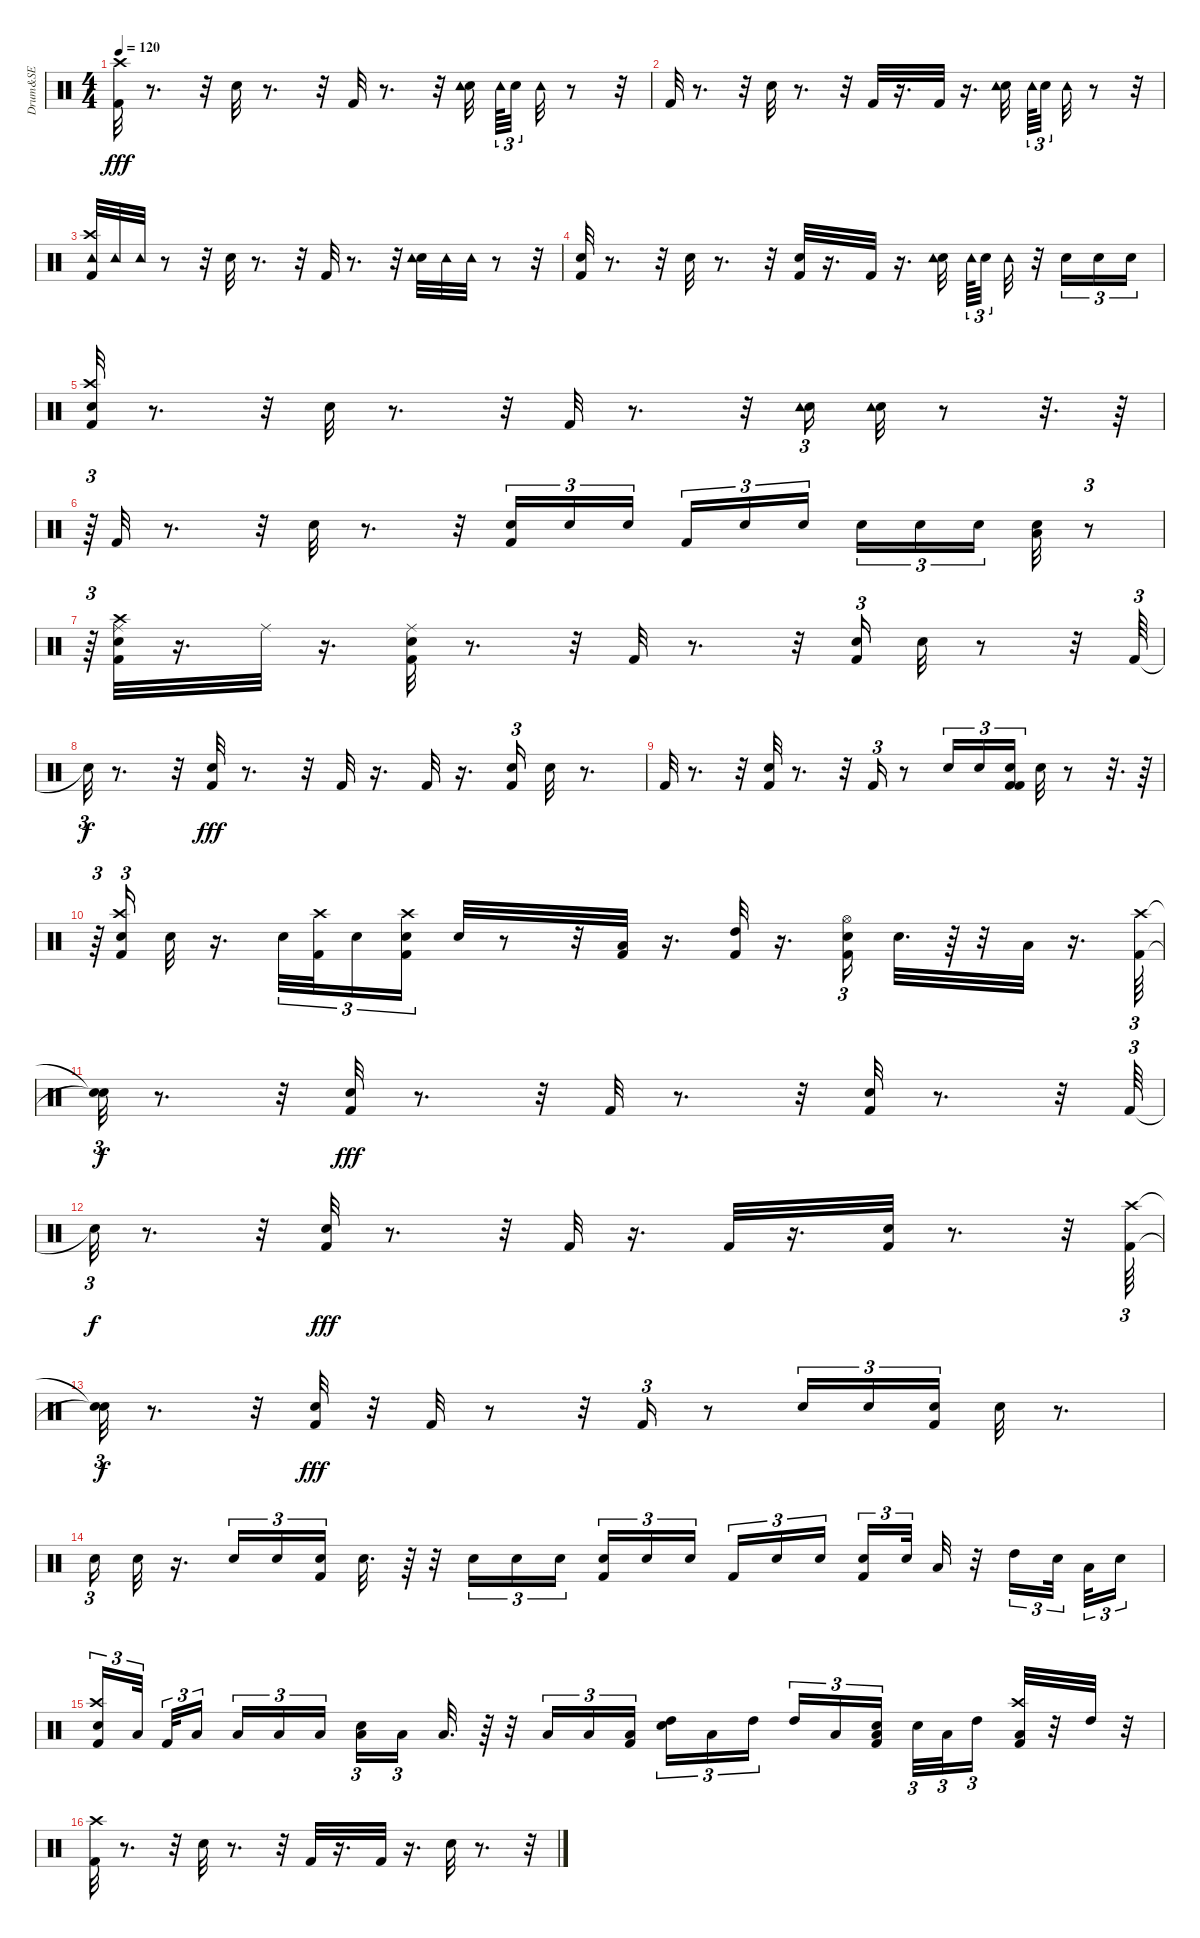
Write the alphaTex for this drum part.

\track ("Drum&SE" "Drum&SE") {instrument percussion}
\staff {score}
\articulation defaults
\ts (4 4)
\tempo 120
\clef neutral
\ks c
("Kick (hit) 2" "Crash high (hit)").32{dy fff} r.8{d} r.32 "Snare (hit) 2".32 r.8{d} r.32 "Kick (hit) 2".32 r.8{d} r.32 ("Snare (hit) 2" "Tambourine (hit)").32 "Tambourine (hit)".64{tu (3 2)} "Snare (hit) 2".32{tu (3 2)} "Tambourine (hit)".32 r.8 r.32 |
"Kick (hit) 2".32 r.8{d} r.32 "Snare (hit) 2".32 r.8{d} r.32 "Kick (hit) 2".32 r.16{d} "Kick (hit) 2".32 r.16{d} ("Snare (hit) 2" "Tambourine (hit)").32 "Tambourine (hit)".64{tu (3 2)} "Snare (hit) 2".32{tu (3 2)} "Tambourine (hit)".32 r.8 r.32 |
("Kick (hit) 2" "Crash high (hit)" "Tambourine (hit)").32 "Tambourine (hit)".32 "Tambourine (hit)".32 r.8 r.32 "Snare (hit) 2".32 r.8{d} r.32 "Kick (hit) 2".32 r.8{d} r.32 ("Snare (hit) 2" "Tambourine (hit)").32 "Tambourine (hit)".32 "Tambourine (hit)".32 r.8 r.32 |
("Kick (hit) 2" "Snare (hit) 2").32 r.8{d} r.32 "Snare (hit) 2".32 r.8{d} r.32 ("Kick (hit) 2" "Snare (hit) 2").32 r.16{d} "Kick (hit) 2".32 r.16{d} ("Snare (hit) 2" "Tambourine (hit)").32 "Tambourine (hit)".64{tu (3 2)} "Snare (hit) 2".32{tu (3 2)} "Tambourine (hit)".32 r.32 "Snare (hit) 2".16{tu (3 2)} "Snare (hit) 2".16{tu (3 2)} "Snare (hit) 2".16{tu (3 2)} |
("Kick (hit) 2" "Snare (hit) 2" "Crash high (hit)").32 r.8{d} r.32 "Snare (hit) 2".32 r.8{d} r.32 "Kick (hit) 2".32 r.8{d} r.32 ("Snare (hit) 2" "Tambourine (hit)").16{tu (3 2)} ("Snare (hit) 2" "Tambourine (hit)").32 r.8 r.32{d} r.64 |
r.64{tu (3 2)} "Kick (hit) 2".32 r.8{d} r.32 "Snare (hit) 2".32 r.8{d} r.32 ("Kick (hit) 2" "Snare (hit) 2").16{tu (3 2)} "Snare (hit) 2".16{tu (3 2)} "Snare (hit) 2".16{tu (3 2)} "Kick (hit) 2".16{tu (3 2)} "Snare (hit) 2".16{tu (3 2)} "Snare (hit) 2".16{tu (3 2)} "Snare (hit) 2".16{tu (3 2)} "Snare (hit) 2".16{tu (3 2)} "Snare (hit) 2".16{tu (3 2)} ("Snare (hit) 2" "Low Tom (hit)").32 r.8{tu (3 2)} |
r.64{tu (3 2)} ("Kick (hit) 2" "Snare (hit) 2" "Crash high (hit)" "Ride (middle)").32 r.16{d} "Ride (middle)".32 r.16{d} ("Kick (hit) 2" "Snare (hit) 2" "Ride (middle)").32 r.8{d} r.32 "Kick (hit) 2".32 r.8{d} r.32 ("Kick (hit) 2" "Snare (hit) 2").16{tu (3 2)} "Snare (hit) 2".32 r.8 r.32 "Kick (hit) 2".64{tu (3 2)} |
"Snare (hit)"{t}.32{tu (3 2) dy f} r.8{d} r.32 ("Kick (hit) 2" "Snare (hit) 2").32{dy fff} r.8{d} r.32 "Kick (hit) 2".32 r.16{d} "Kick (hit) 2".32 r.16{d} ("Kick (hit) 2" "Snare (hit) 2").16{tu (3 2)} "Snare (hit) 2".32 r.8{d} |
"Kick (hit) 2".32 r.8{d} r.32 ("Kick (hit) 2" "Snare (hit) 2").32 r.8{d} r.32 "Kick (hit) 2".16{tu (3 2)} r.8 "Snare (hit) 2".16{tu (3 2)} "Snare (hit) 2".16{tu (3 2)} ("Kick (hit) 2" "Kick (hit) 2" "Snare (hit) 2").16{tu (3 2)} "Snare (hit) 2".32 r.8 r.32{d} r.64 |
r.64{tu (3 2)} ("Kick (hit) 2" "Snare (hit) 2" "Crash high (hit)").16{tu (3 2)} "Snare (hit) 2".32 r.16{d} "Snare (hit) 2".32{tu (3 2)} ("Kick (hit) 2" "Crash high (hit)").32{tu (3 2)} "Snare (hit) 2".16{tu (3 2)} ("Kick (hit) 2" "Snare (hit) 2" "Crash high (hit)").16{tu (3 2)} "Snare (hit) 2".32 r.8 r.32 ("Kick (hit) 2" "Low Tom (hit)").32 r.16{d} ("Kick (hit) 2" "High Tom (hit)").32 r.16{d} ("Kick (hit) 2" "Snare (hit) 2" "Hi-Hat (open)").16{tu (3 2)} "Snare (hit) 2".32{d} r.64 r.32 "Low Floor Tom (hit)".32 r.16{d} ("Kick (hit) 2" "Crash high (hit)").64{tu (3 2)} |
("Snare (hit)"{t} "Snare (hit)"{t}).32{tu (3 2) dy f} r.8{d} r.32 ("Kick (hit) 2" "Snare (hit) 2").32{dy fff} r.8{d} r.32 "Kick (hit) 2".32 r.8{d} r.32 ("Kick (hit) 2" "Snare (hit) 2").32 r.8{d} r.32 "Kick (hit) 2".64{tu (3 2)} |
"Snare (hit)"{t}.32{tu (3 2) dy f} r.8{d} r.32 ("Kick (hit) 2" "Snare (hit) 2").32{dy fff} r.8{d} r.32 "Kick (hit) 2".32 r.16{d} "Kick (hit) 2".32 r.16{d} ("Kick (hit) 2" "Snare (hit) 2").32 r.8{d} r.32 ("Kick (hit) 2" "Crash high (hit)").64{tu (3 2)} |
("Snare (hit)"{t} "Snare (hit)"{t}).32{tu (3 2) dy f} r.8{d} r.32 ("Kick (hit) 2" "Snare (hit) 2").32{dy fff} r.32 "Kick (hit) 2".32 r.8 r.32 "Kick (hit) 2".16{tu (3 2)} r.8 "Snare (hit) 2".16{tu (3 2)} "Snare (hit) 2".16{tu (3 2)} ("Kick (hit) 2" "Snare (hit) 2").16{tu (3 2)} "Snare (hit) 2".32 r.8{d} |
"Snare (hit) 2".16{tu (3 2)} "Snare (hit) 2".32 r.16{d} "Snare (hit) 2".16{tu (3 2)} "Snare (hit) 2".16{tu (3 2)} ("Kick (hit) 2" "Snare (hit) 2").16{tu (3 2)} "Snare (hit) 2".32{d} r.64 r.32 "Snare (hit) 2".16{tu (3 2)} "Snare (hit) 2".16{tu (3 2)} "Snare (hit) 2".16{tu (3 2)} ("Kick (hit) 2" "Snare (hit) 2").16{tu (3 2)} "Snare (hit) 2".16{tu (3 2)} "Snare (hit) 2".16{tu (3 2)} "Kick (hit) 2".16{tu (3 2)} "Snare (hit) 2".16{tu (3 2)} "Snare (hit) 2".16{tu (3 2)} ("Kick (hit) 2" "Snare (hit) 2").16{tu (3 2)} "Snare (hit) 2".32{tu (3 2)} "Low Tom (hit)".32 r.32 "High Tom (hit)".16{tu (3 2)} "Snare (hit) 2".32{tu (3 2)} "Low Tom (hit)".32{tu (3 2)} "Snare (hit) 2".16{tu (3 2)} |
("Kick (hit) 2" "Snare (hit) 2" "Crash high (hit)").16{tu (3 2)} "Low Floor Tom (hit)".32{tu (3 2)} "Kick (hit) 2".32{tu (3 2)} "Low Floor Tom (hit)".16{tu (3 2)} "Low Floor Tom (hit)".16{tu (3 2)} "Low Floor Tom (hit)".16{tu (3 2)} "Low Floor Tom (hit)".16{tu (3 2)} ("Snare (hit) 2" "Low Tom (hit)").16{tu (3 2)} "Low Floor Tom (hit)".16{tu (3 2)} "Low Tom (hit)".32{d} r.64 r.32 "Low Tom (hit)".16{tu (3 2)} "Low Tom (hit)".16{tu (3 2)} ("Kick (hit) 2" "Low Floor Tom (hit)").16{tu (3 2)} ("Snare (hit) 2" "High Tom (hit)").16{tu (3 2)} "Low Tom (hit)".16{tu (3 2)} "High Tom (hit)".16{tu (3 2)} "High Tom (hit)".16{tu (3 2)} "Low Tom (hit)".16{tu (3 2)} ("Kick (hit) 2" "Snare (hit) 2" "Low Floor Tom (hit)").16{tu (3 2)} "Snare (hit) 2".32{tu (3 2)} "Low Floor Tom (hit)".32{tu (3 2)} "High Tom (hit)".16{tu (3 2)} ("Kick (hit) 2" "Low Tom (hit)" "Crash high (hit)").32 r.32 "High Tom (hit)".32 r.32 |
("Kick (hit) 2" "Crash high (hit)").32 r.8{d} r.32 "Snare (hit) 2".32 r.8{d} r.32 "Kick (hit) 2".32 r.16{d} "Kick (hit) 2".32 r.16{d} "Snare (hit) 2".32 r.8{d} r.32
